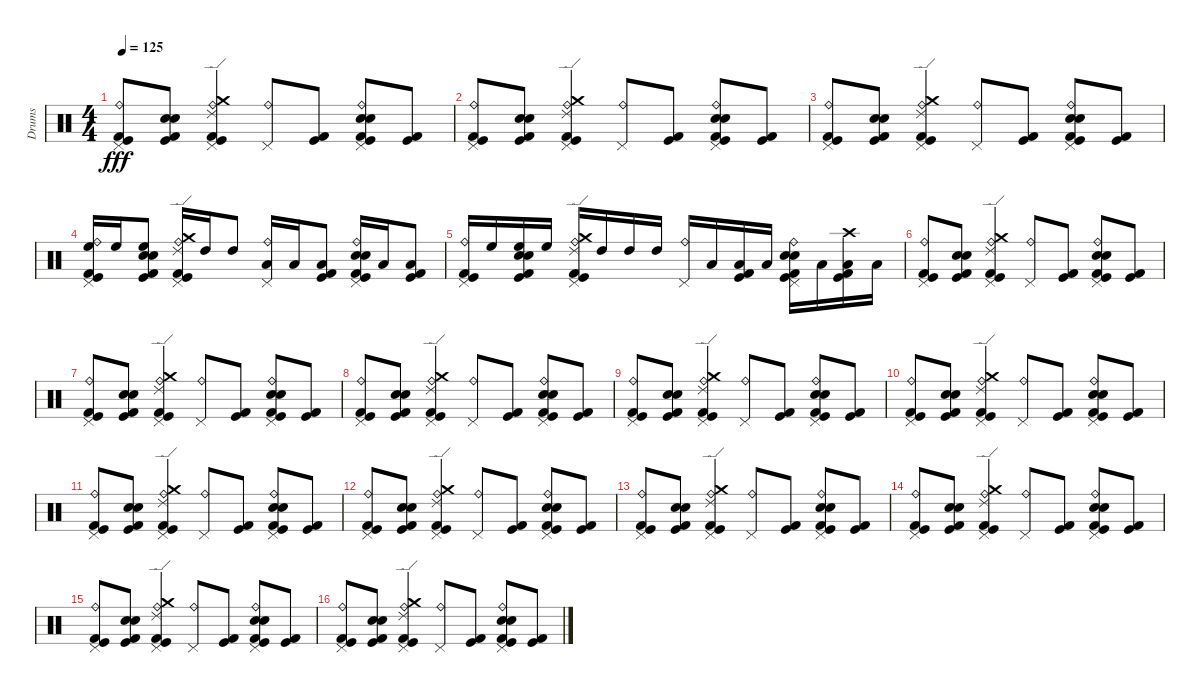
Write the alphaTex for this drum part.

\track ("Drums" "Drums") {instrument percussion}
\staff {score}
\articulation defaults
\ts (4 4)
\tempo 125
\clef neutral
\ks c
("Pedal Hi-Hat (hit)" "Kick (hit) 2" "Kick (hit)" "Ride (bell)").8{dy fff} ("Electric Snare (hit)" "Snare (hit) 2" "Kick (hit)" "Kick (hit) 2").8 ("Pedal Hi-Hat (hit)" "Kick (hit) 2" "Kick (hit)" "Ride (bell)" "Crash medium (hit)" "Ride (edge) 2").4 ("Pedal Hi-Hat (hit)" "Ride (bell)").8 ("Kick (hit) 2" "Kick (hit)").8 ("Pedal Hi-Hat (hit)" "Electric Snare (hit)" "Snare (hit) 2" "Kick (hit) 2" "Kick (hit)" "Ride (bell)").8 ("Kick (hit) 2" "Kick (hit)").8 |
("Pedal Hi-Hat (hit)" "Kick (hit) 2" "Kick (hit)" "Ride (bell)").8 ("Electric Snare (hit)" "Snare (hit) 2" "Kick (hit)" "Kick (hit) 2").8 ("Pedal Hi-Hat (hit)" "Kick (hit) 2" "Kick (hit)" "Ride (bell)" "Crash medium (hit)" "Ride (edge) 2").4 ("Pedal Hi-Hat (hit)" "Ride (bell)").8 ("Kick (hit) 2" "Kick (hit)").8 ("Pedal Hi-Hat (hit)" "Electric Snare (hit)" "Snare (hit) 2" "Kick (hit) 2" "Kick (hit)" "Ride (bell)").8 ("Kick (hit) 2" "Kick (hit)").8 |
("Pedal Hi-Hat (hit)" "Kick (hit) 2" "Kick (hit)" "Ride (bell)").8 ("Electric Snare (hit)" "Snare (hit) 2" "Kick (hit)" "Kick (hit) 2").8 ("Pedal Hi-Hat (hit)" "Kick (hit) 2" "Kick (hit)" "Ride (bell)" "Crash medium (hit)" "Ride (edge) 2").4 ("Pedal Hi-Hat (hit)" "Ride (bell)").8 ("Kick (hit) 2" "Kick (hit)").8 ("Pedal Hi-Hat (hit)" "Electric Snare (hit)" "Snare (hit) 2" "Kick (hit) 2" "Kick (hit)" "Ride (bell)").8 ("Kick (hit) 2" "Kick (hit)").8 |
("Pedal Hi-Hat (hit)" "Kick (hit) 2" "Kick (hit)" "Ride (bell)" "High Floor Tom (hit)").16 "High Floor Tom (hit)".16 ("Electric Snare (hit)" "Snare (hit) 2" "Kick (hit)" "Kick (hit) 2" "High Floor Tom (hit)").8 ("Pedal Hi-Hat (hit)" "Kick (hit) 2" "Kick (hit)" "Ride (bell)" "Crash medium (hit)" "Ride (edge) 2").16 "High Tom (hit)".16 "High Tom (hit)".8 ("Pedal Hi-Hat (hit)" "Ride (bell)" "Low Tom (hit)").16 "Low Tom (hit)".16 ("Kick (hit) 2" "Kick (hit)" "Low Tom (hit)").8 ("Pedal Hi-Hat (hit)" "Electric Snare (hit)" "Snare (hit) 2" "Kick (hit) 2" "Kick (hit)" "Ride (bell)").16 "Low Floor Tom (hit)".16 ("Kick (hit) 2" "Kick (hit)" "Low Floor Tom (hit)").8 |
("Pedal Hi-Hat (hit)" "Kick (hit) 2" "Kick (hit)" "Ride (bell)").16 "High Floor Tom (hit)".16 ("Electric Snare (hit)" "Snare (hit) 2" "Kick (hit)" "Kick (hit) 2" "High Floor Tom (hit)").16 "High Floor Tom (hit)".16 ("Pedal Hi-Hat (hit)" "Kick (hit) 2" "Kick (hit)" "Ride (bell)" "Crash medium (hit)" "Ride (edge) 2").16 "High Tom (hit)".16 "High Tom (hit)".16 "High Tom (hit)".16 ("Pedal Hi-Hat (hit)" "Ride (bell)").16 "Low Tom (hit)".16 ("Kick (hit) 2" "Kick (hit)" "Low Tom (hit)").16 "Low Tom (hit)".16 ("Pedal Hi-Hat (hit)" "Electric Snare (hit)" "Snare (hit) 2" "Kick (hit) 2" "Kick (hit)" "Ride (bell)").16 "Low Floor Tom (hit)".16 ("Kick (hit) 2" "Kick (hit)" "Low Floor Tom (hit)" "Crash high (hit)").16 "Low Floor Tom (hit)".16 |
("Pedal Hi-Hat (hit)" "Kick (hit) 2" "Kick (hit)" "Ride (bell)").8 ("Electric Snare (hit)" "Snare (hit) 2" "Kick (hit)" "Kick (hit) 2").8 ("Pedal Hi-Hat (hit)" "Kick (hit) 2" "Kick (hit)" "Ride (bell)" "Crash medium (hit)" "Ride (edge) 2").4 ("Pedal Hi-Hat (hit)" "Ride (bell)").8 ("Kick (hit) 2" "Kick (hit)").8 ("Pedal Hi-Hat (hit)" "Electric Snare (hit)" "Snare (hit) 2" "Kick (hit) 2" "Kick (hit)" "Ride (bell)").8 ("Kick (hit) 2" "Kick (hit)").8 |
("Pedal Hi-Hat (hit)" "Kick (hit) 2" "Kick (hit)" "Ride (bell)").8 ("Electric Snare (hit)" "Snare (hit) 2" "Kick (hit)" "Kick (hit) 2").8 ("Pedal Hi-Hat (hit)" "Kick (hit) 2" "Kick (hit)" "Ride (bell)" "Crash medium (hit)" "Ride (edge) 2").4 ("Pedal Hi-Hat (hit)" "Ride (bell)").8 ("Kick (hit) 2" "Kick (hit)").8 ("Pedal Hi-Hat (hit)" "Electric Snare (hit)" "Snare (hit) 2" "Kick (hit) 2" "Kick (hit)" "Ride (bell)").8 ("Kick (hit) 2" "Kick (hit)").8 |
("Pedal Hi-Hat (hit)" "Kick (hit) 2" "Kick (hit)" "Ride (bell)").8 ("Electric Snare (hit)" "Snare (hit) 2" "Kick (hit)" "Kick (hit) 2").8 ("Kick (hit) 2" "Kick (hit)" "Ride (bell)" "Crash medium (hit)" "Ride (edge) 2" "Pedal Hi-Hat (hit)").4 ("Pedal Hi-Hat (hit)" "Ride (bell)").8 ("Kick (hit) 2" "Kick (hit)").8 ("Pedal Hi-Hat (hit)" "Electric Snare (hit)" "Snare (hit) 2" "Kick (hit) 2" "Kick (hit)" "Ride (bell)").8 ("Kick (hit) 2" "Kick (hit)").8 |
("Pedal Hi-Hat (hit)" "Kick (hit) 2" "Kick (hit)" "Ride (bell)").8 ("Electric Snare (hit)" "Snare (hit) 2" "Kick (hit)" "Kick (hit) 2").8 ("Kick (hit) 2" "Kick (hit)" "Ride (bell)" "Crash medium (hit)" "Ride (edge) 2" "Pedal Hi-Hat (hit)").4 ("Pedal Hi-Hat (hit)" "Ride (bell)").8 ("Kick (hit) 2" "Kick (hit)").8 ("Pedal Hi-Hat (hit)" "Electric Snare (hit)" "Snare (hit) 2" "Kick (hit) 2" "Kick (hit)" "Ride (bell)").8 ("Kick (hit) 2" "Kick (hit)").8 |
("Pedal Hi-Hat (hit)" "Kick (hit) 2" "Kick (hit)" "Ride (bell)").8 ("Electric Snare (hit)" "Snare (hit) 2" "Kick (hit)" "Kick (hit) 2").8 ("Kick (hit) 2" "Kick (hit)" "Ride (bell)" "Crash medium (hit)" "Ride (edge) 2" "Pedal Hi-Hat (hit)").4 ("Pedal Hi-Hat (hit)" "Ride (bell)").8 ("Kick (hit) 2" "Kick (hit)").8 ("Pedal Hi-Hat (hit)" "Electric Snare (hit)" "Snare (hit) 2" "Kick (hit) 2" "Kick (hit)" "Ride (bell)").8 ("Kick (hit) 2" "Kick (hit)").8 |
("Pedal Hi-Hat (hit)" "Kick (hit) 2" "Kick (hit)" "Ride (bell)").8 ("Electric Snare (hit)" "Snare (hit) 2" "Kick (hit)" "Kick (hit) 2").8 ("Kick (hit) 2" "Kick (hit)" "Ride (bell)" "Crash medium (hit)" "Ride (edge) 2" "Pedal Hi-Hat (hit)").4 ("Pedal Hi-Hat (hit)" "Ride (bell)").8 ("Kick (hit) 2" "Kick (hit)").8 ("Pedal Hi-Hat (hit)" "Electric Snare (hit)" "Snare (hit) 2" "Kick (hit) 2" "Kick (hit)" "Ride (bell)").8 ("Kick (hit) 2" "Kick (hit)").8 |
("Pedal Hi-Hat (hit)" "Kick (hit) 2" "Kick (hit)" "Ride (bell)").8 ("Electric Snare (hit)" "Snare (hit) 2" "Kick (hit)" "Kick (hit) 2").8 ("Kick (hit) 2" "Kick (hit)" "Ride (bell)" "Crash medium (hit)" "Ride (edge) 2" "Pedal Hi-Hat (hit)").4 ("Pedal Hi-Hat (hit)" "Ride (bell)").8 ("Kick (hit) 2" "Kick (hit)").8 ("Pedal Hi-Hat (hit)" "Electric Snare (hit)" "Snare (hit) 2" "Kick (hit) 2" "Kick (hit)" "Ride (bell)").8 ("Kick (hit) 2" "Kick (hit)").8 |
("Pedal Hi-Hat (hit)" "Kick (hit) 2" "Kick (hit)" "Ride (bell)").8 ("Electric Snare (hit)" "Snare (hit) 2" "Kick (hit)" "Kick (hit) 2").8 ("Kick (hit) 2" "Kick (hit)" "Ride (bell)" "Crash medium (hit)" "Ride (edge) 2" "Pedal Hi-Hat (hit)").4 ("Pedal Hi-Hat (hit)" "Ride (bell)").8 ("Kick (hit) 2" "Kick (hit)").8 ("Pedal Hi-Hat (hit)" "Electric Snare (hit)" "Snare (hit) 2" "Kick (hit) 2" "Kick (hit)" "Ride (bell)").8 ("Kick (hit) 2" "Kick (hit)").8 |
("Pedal Hi-Hat (hit)" "Kick (hit) 2" "Kick (hit)" "Ride (bell)").8 ("Electric Snare (hit)" "Snare (hit) 2" "Kick (hit)" "Kick (hit) 2").8 ("Kick (hit) 2" "Kick (hit)" "Ride (bell)" "Crash medium (hit)" "Ride (edge) 2" "Pedal Hi-Hat (hit)").4 ("Pedal Hi-Hat (hit)" "Ride (bell)").8 ("Kick (hit) 2" "Kick (hit)").8 ("Pedal Hi-Hat (hit)" "Electric Snare (hit)" "Snare (hit) 2" "Kick (hit) 2" "Kick (hit)" "Ride (bell)").8 ("Kick (hit) 2" "Kick (hit)").8 |
("Pedal Hi-Hat (hit)" "Kick (hit) 2" "Kick (hit)" "Ride (bell)").8 ("Electric Snare (hit)" "Snare (hit) 2" "Kick (hit)" "Kick (hit) 2").8 ("Kick (hit) 2" "Kick (hit)" "Ride (bell)" "Crash medium (hit)" "Ride (edge) 2" "Pedal Hi-Hat (hit)").4 ("Pedal Hi-Hat (hit)" "Ride (bell)").8 ("Kick (hit) 2" "Kick (hit)").8 ("Pedal Hi-Hat (hit)" "Electric Snare (hit)" "Snare (hit) 2" "Kick (hit) 2" "Kick (hit)" "Ride (bell)").8 ("Kick (hit) 2" "Kick (hit)").8 |
("Pedal Hi-Hat (hit)" "Kick (hit) 2" "Kick (hit)" "Ride (bell)").8 ("Electric Snare (hit)" "Snare (hit) 2" "Kick (hit)" "Kick (hit) 2").8 ("Kick (hit) 2" "Kick (hit)" "Ride (bell)" "Crash medium (hit)" "Ride (edge) 2" "Pedal Hi-Hat (hit)").4 ("Pedal Hi-Hat (hit)" "Ride (bell)").8 ("Kick (hit) 2" "Kick (hit)").8 ("Pedal Hi-Hat (hit)" "Electric Snare (hit)" "Snare (hit) 2" "Kick (hit) 2" "Kick (hit)" "Ride (bell)").8 ("Kick (hit) 2" "Kick (hit)").8
